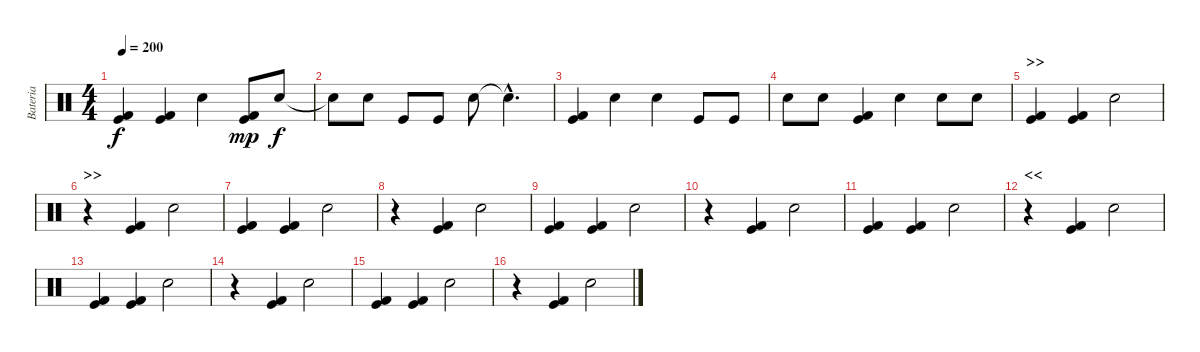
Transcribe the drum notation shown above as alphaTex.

\track ("Bateria" "Bateria") {instrument percussion}
\staff {score}
\articulation defaults
\ts (4 4)
\tempo 200
\clef neutral
\ks c
("Kick (hit) 2" "Kick (hit)").4{dy f} ("Kick (hit) 2" "Kick (hit)").4 "Electric Snare (hit)".4 ("Kick (hit)" "Kick (hit) 2").8{dy mp} "Electric Snare (hit)".8{dy f} |
"Snare (hit)"{t}.8 "Electric Snare (hit)".8 "Kick (hit)".8 "Kick (hit)".8 "Electric Snare (hit)".8 "Snare (hit)"{hac t}.4{d} |
("Kick (hit)" "Kick (hit) 2").4 "Electric Snare (hit)".4 "Electric Snare (hit)".4 "Kick (hit)".8 "Kick (hit)".8 |
"Electric Snare (hit)".8 "Electric Snare (hit)".8 ("Kick (hit)" "Kick (hit) 2").4 "Electric Snare (hit)".4 "Electric Snare (hit)".8 "Electric Snare (hit)".8 |
\section ("" ">>")
("Kick (hit) 2" "Kick (hit)").4 ("Kick (hit) 2" "Kick (hit)").4 "Electric Snare (hit)".2 |
\section ("" ">>")
r.4 ("Kick (hit) 2" "Kick (hit)").4 "Electric Snare (hit)".2 |
("Kick (hit) 2" "Kick (hit)").4 ("Kick (hit) 2" "Kick (hit)").4 "Electric Snare (hit)".2 |
r.4 ("Kick (hit) 2" "Kick (hit)").4 "Electric Snare (hit)".2 |
("Kick (hit) 2" "Kick (hit)").4 ("Kick (hit) 2" "Kick (hit)").4 "Electric Snare (hit)".2 |
r.4 ("Kick (hit) 2" "Kick (hit)").4 "Electric Snare (hit)".2 |
("Kick (hit) 2" "Kick (hit)").4 ("Kick (hit) 2" "Kick (hit)").4 "Electric Snare (hit)".2 |
\section ("" "<<")
r.4 ("Kick (hit) 2" "Kick (hit)").4 "Electric Snare (hit)".2 |
("Kick (hit) 2" "Kick (hit)").4 ("Kick (hit) 2" "Kick (hit)").4 "Electric Snare (hit)".2 |
r.4 ("Kick (hit) 2" "Kick (hit)").4 "Electric Snare (hit)".2 |
("Kick (hit) 2" "Kick (hit)").4 ("Kick (hit) 2" "Kick (hit)").4 "Electric Snare (hit)".2 |
r.4 ("Kick (hit) 2" "Kick (hit)").4 "Electric Snare (hit)".2
